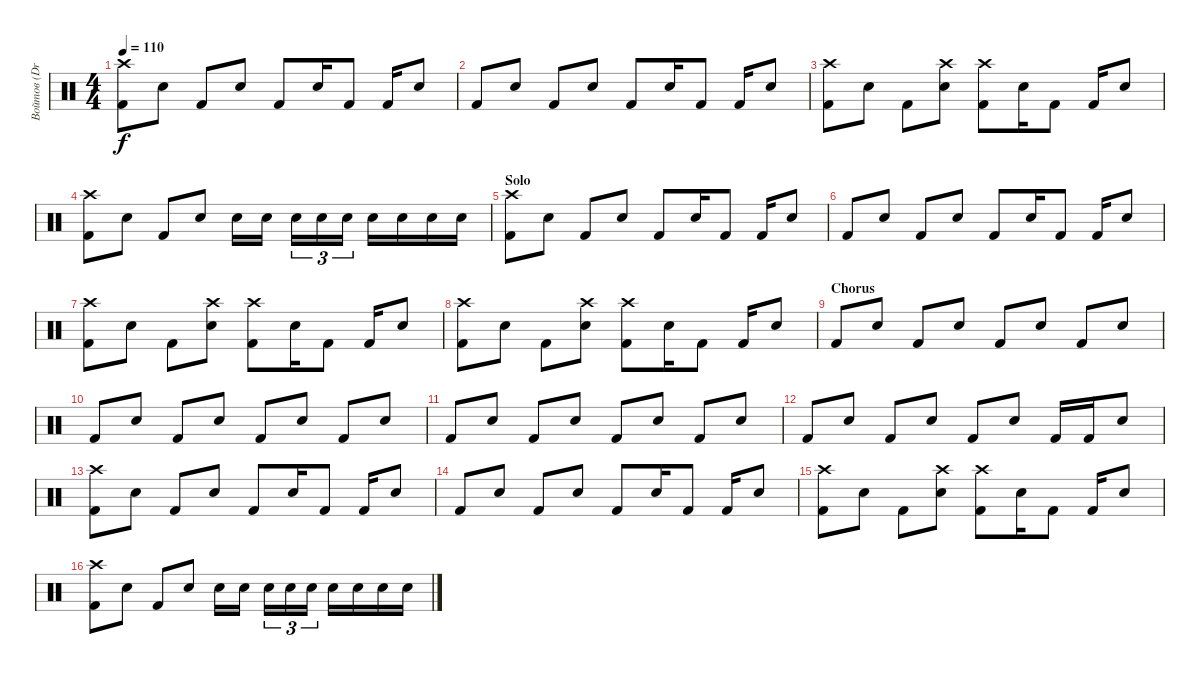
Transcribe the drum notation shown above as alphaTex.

\track ("Войтов (Drums)" "Войтов (Dr") {instrument percussion}
\staff {score}
\articulation defaults
\ts (4 4)
\tempo 110
\clef neutral
\ks c
("Kick (hit) 2" "Crash high (hit)").8{dy f} "Electric Snare (hit)".8 "Kick (hit) 2".8 "Electric Snare (hit)".8 "Kick (hit) 2".8 "Electric Snare (hit)".16 "Kick (hit) 2".8 "Kick (hit) 2".16 "Electric Snare (hit)".8 |
"Kick (hit) 2".8 "Electric Snare (hit)".8 "Kick (hit) 2".8 "Electric Snare (hit)".8 "Kick (hit) 2".8 "Electric Snare (hit)".16 "Kick (hit) 2".8 "Kick (hit) 2".16 "Electric Snare (hit)".8 |
("Kick (hit) 2" "Crash high (hit)").8 "Electric Snare (hit)".8 "Kick (hit) 2".8 ("Electric Snare (hit)" "Crash high (hit)").8 ("Kick (hit) 2" "Crash high (hit)").8 "Electric Snare (hit)".16 "Kick (hit) 2".8 "Kick (hit) 2".16 "Electric Snare (hit)".8 |
("Kick (hit) 2" "Crash high (hit)").8 "Electric Snare (hit)".8 "Kick (hit) 2".8 "Electric Snare (hit)".8 "Electric Snare (hit)".16 "Electric Snare (hit)".16 "Electric Snare (hit)".16{tu (3 2)} "Electric Snare (hit)".16{tu (3 2)} "Electric Snare (hit)".16{tu (3 2)} "Electric Snare (hit)".16 "Electric Snare (hit)".16 "Electric Snare (hit)".16 "Electric Snare (hit)".16 |
\section ("" "Solo")
("Kick (hit) 2" "Crash high (hit)").8 "Electric Snare (hit)".8 "Kick (hit) 2".8 "Electric Snare (hit)".8 "Kick (hit) 2".8 "Electric Snare (hit)".16 "Kick (hit) 2".8 "Kick (hit) 2".16 "Electric Snare (hit)".8 |
"Kick (hit) 2".8 "Electric Snare (hit)".8 "Kick (hit) 2".8 "Electric Snare (hit)".8 "Kick (hit) 2".8 "Electric Snare (hit)".16 "Kick (hit) 2".8 "Kick (hit) 2".16 "Electric Snare (hit)".8 |
("Kick (hit) 2" "Crash high (hit)").8 "Electric Snare (hit)".8 "Kick (hit) 2".8 ("Electric Snare (hit)" "Crash high (hit)").8 ("Kick (hit) 2" "Crash high (hit)").8 "Electric Snare (hit)".16 "Kick (hit) 2".8 "Kick (hit) 2".16 "Electric Snare (hit)".8 |
("Kick (hit) 2" "Crash high (hit)").8 "Electric Snare (hit)".8 "Kick (hit) 2".8 ("Electric Snare (hit)" "Crash high (hit)").8 ("Kick (hit) 2" "Crash high (hit)").8 "Electric Snare (hit)".16 "Kick (hit) 2".8 "Kick (hit) 2".16 "Electric Snare (hit)".8 |
\section ("" "Chorus")
"Kick (hit) 2".8 "Electric Snare (hit)".8 "Kick (hit) 2".8 "Electric Snare (hit)".8 "Kick (hit) 2".8 "Electric Snare (hit)".8 "Kick (hit) 2".8 "Electric Snare (hit)".8 |
"Kick (hit) 2".8 "Electric Snare (hit)".8 "Kick (hit) 2".8 "Electric Snare (hit)".8 "Kick (hit) 2".8 "Electric Snare (hit)".8 "Kick (hit) 2".8 "Electric Snare (hit)".8 |
"Kick (hit) 2".8 "Electric Snare (hit)".8 "Kick (hit) 2".8 "Electric Snare (hit)".8 "Kick (hit) 2".8 "Electric Snare (hit)".8 "Kick (hit) 2".8 "Electric Snare (hit)".8 |
"Kick (hit) 2".8 "Electric Snare (hit)".8 "Kick (hit) 2".8 "Electric Snare (hit)".8 "Kick (hit) 2".8 "Electric Snare (hit)".8 "Kick (hit) 2".16 "Kick (hit) 2".16 "Electric Snare (hit)".8 |
("Kick (hit) 2" "Crash high (hit)").8 "Electric Snare (hit)".8 "Kick (hit) 2".8 "Electric Snare (hit)".8 "Kick (hit) 2".8 "Electric Snare (hit)".16 "Kick (hit) 2".8 "Kick (hit) 2".16 "Electric Snare (hit)".8 |
"Kick (hit) 2".8 "Electric Snare (hit)".8 "Kick (hit) 2".8 "Electric Snare (hit)".8 "Kick (hit) 2".8 "Electric Snare (hit)".16 "Kick (hit) 2".8 "Kick (hit) 2".16 "Electric Snare (hit)".8 |
("Kick (hit) 2" "Crash high (hit)").8 "Electric Snare (hit)".8 "Kick (hit) 2".8 ("Electric Snare (hit)" "Crash high (hit)").8 ("Kick (hit) 2" "Crash high (hit)").8 "Electric Snare (hit)".16 "Kick (hit) 2".8 "Kick (hit) 2".16 "Electric Snare (hit)".8 |
("Kick (hit) 2" "Crash high (hit)").8 "Electric Snare (hit)".8 "Kick (hit) 2".8 "Electric Snare (hit)".8 "Electric Snare (hit)".16 "Electric Snare (hit)".16 "Electric Snare (hit)".16{tu (3 2)} "Electric Snare (hit)".16{tu (3 2)} "Electric Snare (hit)".16{tu (3 2)} "Electric Snare (hit)".16 "Electric Snare (hit)".16 "Electric Snare (hit)".16 "Electric Snare (hit)".16
